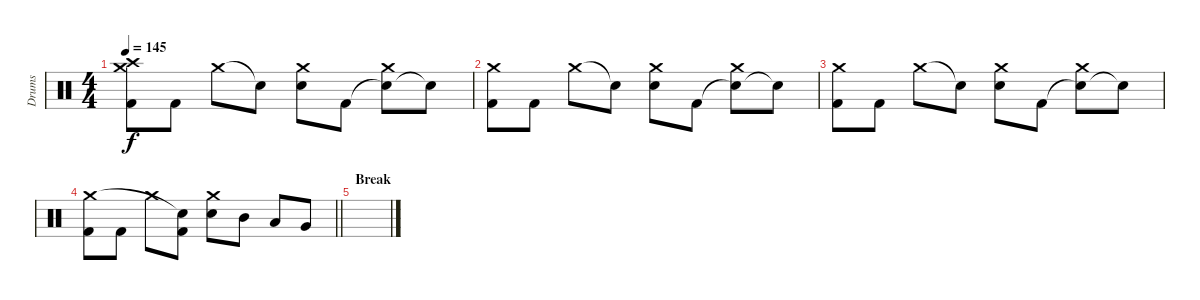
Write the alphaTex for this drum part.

\track ("Drums" "Drums") {instrument percussion}
\staff {score}
\articulation defaults
\ts (4 4)
\tempo 145
\clef neutral
\ks c
("Kick (hit) 2" "Crash medium (hit)" "Crash high (hit)").8{dy f} "Kick (hit) 2".8 "Crash medium (hit)".8 "Snare (hit)"{t}.8 ("Electric Snare (hit)" "Crash medium (hit)").8 "Kick (hit) 2".8 ("Snare (hit)"{t} "Crash medium (hit)").8 "Snare (hit)"{t}.8 |
("Kick (hit) 2" "Crash medium (hit)").8 "Kick (hit) 2".8 "Crash medium (hit)".8 "Snare (hit)"{t}.8 ("Electric Snare (hit)" "Crash medium (hit)").8 "Kick (hit) 2".8 ("Snare (hit)"{t} "Crash medium (hit)").8 "Snare (hit)"{t}.8 |
("Kick (hit) 2" "Crash medium (hit)").8 "Kick (hit) 2".8 "Crash medium (hit)".8 "Snare (hit)"{t}.8 ("Electric Snare (hit)" "Crash medium (hit)").8 "Kick (hit) 2".8 ("Snare (hit)"{t} "Crash medium (hit)").8 "Snare (hit)"{t}.8 |
\barLineRight lightlight
("Kick (hit) 2" "Crash medium (hit)").8 "Kick (hit) 2".8 "Crash medium (hit)".8 ("Kick (hit) 2" "Snare (hit)"{t}).8 ("Electric Snare (hit)" "Crash medium (hit)").8 "Mid Tom (hit)".8 "Low Tom (hit)".8 "Very Low Tom (hit)".8 |
\section ("" "Break")
